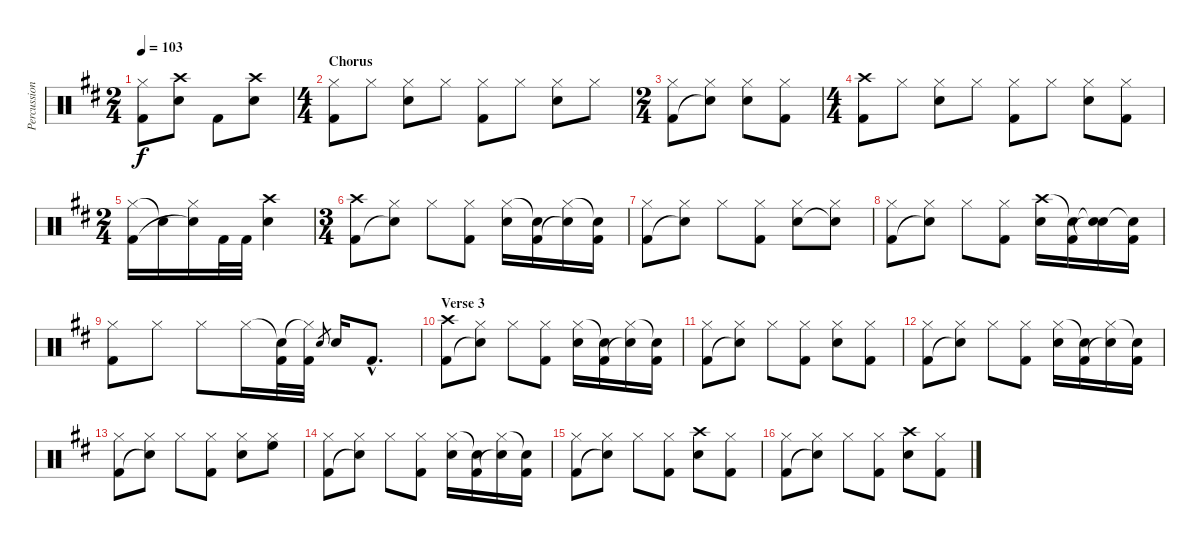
\track ("Percussions" "Percussion") {instrument percussion}
\staff {score}
\articulation defaults
\ts (2 4)
\tempo 103
\clef neutral
\ks bminor
("Hi-Hat (closed)" "Kick (hit) 2").8{dy f} ("Crash high (hit)" "Snare (hit) 2").8 "Kick (hit) 2".8 ("Crash high (hit)" "Snare (hit) 2").8 |
\ts (4 4)
\section ("" "Chorus")
("Hi-Hat (closed)" "Kick (hit) 2").8 "Hi-Hat (closed)".8 ("Hi-Hat (closed)" "Snare (hit) 2").8 "Hi-Hat (closed)".8 ("Hi-Hat (closed)" "Kick (hit) 2").8 "Hi-Hat (closed)".8 ("Hi-Hat (closed)" "Snare (hit) 2").8 "Hi-Hat (closed)".8 |
\ts (2 4)
("Hi-Hat (closed)" "Kick (hit) 2").8 ("Hi-Hat (closed)" "Snare (hit)"{t}).8 ("Hi-Hat (closed)" "Snare (hit) 2").8 ("Hi-Hat (closed)" "Kick (hit) 2").8 |
\ts (4 4)
("Crash high (hit)" "Kick (hit) 2").8 "Hi-Hat (closed)".8 ("Hi-Hat (closed)" "Snare (hit) 2").8 "Hi-Hat (closed)".8 ("Hi-Hat (closed)" "Kick (hit) 2").8 "Hi-Hat (closed)".8 ("Hi-Hat (closed)" "Snare (hit) 2").8 ("Hi-Hat (closed)" "Kick (hit) 2").8 |
\ts (2 4)
("Hi-Hat (closed)" "Kick (hit) 2").16 "Snare (hit)"{t}.16 ("Hi-Hat (closed)" "Snare (hit)"{t}).16 "Kick (hit) 2".32 "Kick (hit) 2".32 ("Crash high (hit)" "Snare (hit) 2").4 |
\ts (3 4)
("Crash high (hit)" "Kick (hit) 2").8 ("Hi-Hat (closed)" "Snare (hit)"{t}).8 "Hi-Hat (closed)".8 ("Hi-Hat (closed)" "Kick (hit) 2").8 ("Hi-Hat (closed)" "Snare (hit) 2").16 ("Snare (hit)"{t} "Kick (hit) 2").16 ("Hi-Hat (closed)" "Snare (hit)"{t}).16 ("Snare (hit)"{t} "Kick (hit) 2").16 |
("Hi-Hat (closed)" "Kick (hit) 2").8 ("Hi-Hat (closed)" "Snare (hit)"{t}).8 "Hi-Hat (closed)".8 ("Hi-Hat (closed)" "Kick (hit) 2").8 ("Hi-Hat (closed)" "Snare (hit) 2").8 ("Hi-Hat (closed)" "Snare (hit)"{t}).8 |
("Hi-Hat (closed)" "Kick (hit) 2").8 ("Hi-Hat (closed)" "Snare (hit)"{t}).8 "Hi-Hat (closed)".8 ("Hi-Hat (closed)" "Kick (hit) 2").8 ("Crash high (hit)" "Snare (hit) 2").16 ("Snare (hit)"{t} "Kick (hit) 2").16 ("Snare (hit)"{t} "Snare (hit)"{t}).16 ("Snare (hit)"{t} "Kick (hit) 2").16 |
("Hi-Hat (closed)" "Kick (hit) 2").8 "Hi-Hat (closed)".8 "Hi-Hat (closed)".8 "Hi-Hat (closed)".16 ("Snare (hit)"{t} "Kick (hit) 2").32 ("Hi-Hat (closed)"{t} "Kick (hit) 2").32 "Snare (hit) 2".8{gr} "Snare (hit) 2".16 "Kick (hit) 2"{hac}.8{d} |
\section ("" "Verse 3")
("Crash high (hit)" "Kick (hit) 2").8 ("Hi-Hat (closed)" "Snare (hit)"{t}).8 "Hi-Hat (closed)".8 ("Hi-Hat (closed)" "Kick (hit) 2").8 ("Hi-Hat (closed)" "Snare (hit) 2").16 ("Snare (hit)"{t} "Kick (hit) 2").16 ("Hi-Hat (closed)" "Snare (hit)"{t}).16 ("Snare (hit)"{t} "Kick (hit) 2").16 |
("Hi-Hat (closed)" "Kick (hit) 2").8 ("Hi-Hat (closed)" "Snare (hit)"{t}).8 "Hi-Hat (closed)".8 ("Hi-Hat (closed)" "Kick (hit) 2").8 ("Hi-Hat (closed)" "Snare (hit) 2").8 ("Hi-Hat (closed)" "Kick (hit) 2").8 |
("Hi-Hat (closed)" "Kick (hit) 2").8 ("Hi-Hat (closed)" "Snare (hit)"{t}).8 "Hi-Hat (closed)".8 ("Hi-Hat (closed)" "Kick (hit) 2").8 ("Hi-Hat (closed)" "Snare (hit) 2").16 ("Snare (hit)"{t} "Kick (hit) 2").16 ("Hi-Hat (closed)" "Snare (hit)"{t}).16 ("Snare (hit)"{t} "Kick (hit) 2").16 |
("Hi-Hat (closed)" "Kick (hit) 2").8 ("Hi-Hat (closed)" "Snare (hit)"{t}).8 "Hi-Hat (closed)".8 ("Hi-Hat (closed)" "Kick (hit) 2").8 ("Hi-Hat (closed)" "Snare (hit) 2").8 ("Hi-Hat (closed)" "High Floor Tom (hit)").8 |
("Hi-Hat (closed)" "Kick (hit) 2").8 ("Hi-Hat (closed)" "Snare (hit)"{t}).8 "Hi-Hat (closed)".8 ("Hi-Hat (closed)" "Kick (hit) 2").8 ("Hi-Hat (closed)" "Snare (hit) 2").16 ("Snare (hit)"{t} "Kick (hit) 2").16 ("Hi-Hat (closed)" "Snare (hit)"{t}).16 ("Snare (hit)"{t} "Kick (hit) 2").16 |
("Hi-Hat (closed)" "Kick (hit) 2").8 ("Hi-Hat (closed)" "Snare (hit)"{t}).8 "Hi-Hat (closed)".8 ("Hi-Hat (closed)" "Kick (hit) 2").8 ("Crash high (hit)" "Snare (hit) 2").8 ("Hi-Hat (closed)" "Kick (hit) 2").8 |
("Hi-Hat (closed)" "Kick (hit) 2").8 ("Hi-Hat (closed)" "Snare (hit)"{t}).8 "Hi-Hat (closed)".8 ("Hi-Hat (closed)" "Kick (hit) 2").8 ("Crash high (hit)" "Snare (hit) 2").8 ("Hi-Hat (closed)" "Kick (hit) 2").8
